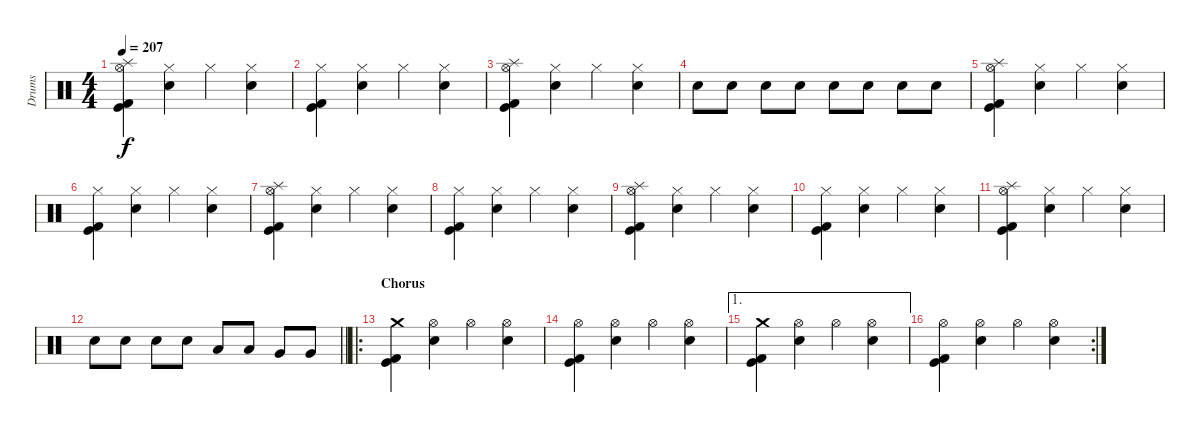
\track ("Drums" "Drums") {instrument percussion}
\staff {score}
\articulation defaults
\ts (4 4)
\tempo 207
\clef neutral
\ks c
("Splash (hit)" "Hi-Hat (open)" "Kick (hit)" "Kick (hit) 2").4{dy f} ("Hi-Hat (closed)" "Electric Snare (hit)").4 "Hi-Hat (closed)".4 ("Hi-Hat (closed)" "Electric Snare (hit)").4 |
("Hi-Hat (closed)" "Kick (hit)" "Kick (hit) 2").4 ("Hi-Hat (closed)" "Electric Snare (hit)").4 "Hi-Hat (closed)".4 ("Hi-Hat (closed)" "Electric Snare (hit)").4 |
("Splash (hit)" "Hi-Hat (open)" "Kick (hit)" "Kick (hit) 2").4 ("Hi-Hat (closed)" "Electric Snare (hit)").4 "Hi-Hat (closed)".4 ("Hi-Hat (closed)" "Electric Snare (hit)").4 |
"Electric Snare (hit)".8 "Electric Snare (hit)".8 "Electric Snare (hit)".8 "Electric Snare (hit)".8 "Electric Snare (hit)".8 "Electric Snare (hit)".8 "Electric Snare (hit)".8 "Electric Snare (hit)".8 |
("Splash (hit)" "Hi-Hat (open)" "Kick (hit)" "Kick (hit) 2").4 ("Hi-Hat (closed)" "Electric Snare (hit)").4 "Hi-Hat (closed)".4 ("Hi-Hat (closed)" "Electric Snare (hit)").4 |
("Hi-Hat (closed)" "Kick (hit)" "Kick (hit) 2").4 ("Hi-Hat (closed)" "Electric Snare (hit)").4 "Hi-Hat (closed)".4 ("Hi-Hat (closed)" "Electric Snare (hit)").4 |
("Splash (hit)" "Hi-Hat (open)" "Kick (hit)" "Kick (hit) 2").4 ("Hi-Hat (closed)" "Electric Snare (hit)").4 "Hi-Hat (closed)".4 ("Hi-Hat (closed)" "Electric Snare (hit)").4 |
("Hi-Hat (closed)" "Kick (hit)" "Kick (hit) 2").4 ("Hi-Hat (closed)" "Electric Snare (hit)").4 "Hi-Hat (closed)".4 ("Hi-Hat (closed)" "Electric Snare (hit)").4 |
("Splash (hit)" "Hi-Hat (open)" "Kick (hit)" "Kick (hit) 2").4 ("Hi-Hat (closed)" "Electric Snare (hit)").4 "Hi-Hat (closed)".4 ("Hi-Hat (closed)" "Electric Snare (hit)").4 |
("Hi-Hat (closed)" "Kick (hit)" "Kick (hit) 2").4 ("Hi-Hat (closed)" "Electric Snare (hit)").4 "Hi-Hat (closed)".4 ("Hi-Hat (closed)" "Electric Snare (hit)").4 |
("Splash (hit)" "Hi-Hat (open)" "Kick (hit)" "Kick (hit) 2").4 ("Hi-Hat (closed)" "Electric Snare (hit)").4 "Hi-Hat (closed)".4 ("Hi-Hat (closed)" "Electric Snare (hit)").4 |
\barLineRight lightlight "Electric Snare (hit)".8 "Electric Snare (hit)".8 "Electric Snare (hit)".8 "Electric Snare (hit)".8 "Low Tom (hit)".8 "Low Tom (hit)".8 "Very Low Tom (hit)".8 "Very Low Tom (hit)".8
|
\ro
\section ("" "Chorus")
("Crash medium (hit)" "Kick (hit)" "Kick (hit) 2").4 ("Hi-Hat (open)" "Electric Snare (hit)").4 "Hi-Hat (open)".4 ("Hi-Hat (open)" "Electric Snare (hit)").4 |
("Hi-Hat (open)" "Kick (hit)" "Kick (hit) 2").4 ("Hi-Hat (open)" "Electric Snare (hit)").4 "Hi-Hat (open)".4 ("Hi-Hat (open)" "Electric Snare (hit)").4 |
\ae 1
("Crash medium (hit)" "Kick (hit)" "Kick (hit) 2").4 ("Hi-Hat (open)" "Electric Snare (hit)").4 "Hi-Hat (open)".4 ("Hi-Hat (open)" "Electric Snare (hit)").4 |
\rc 2
("Hi-Hat (open)" "Kick (hit)" "Kick (hit) 2").4 ("Hi-Hat (open)" "Electric Snare (hit)").4 "Hi-Hat (open)".4 ("Hi-Hat (open)" "Electric Snare (hit)").4
